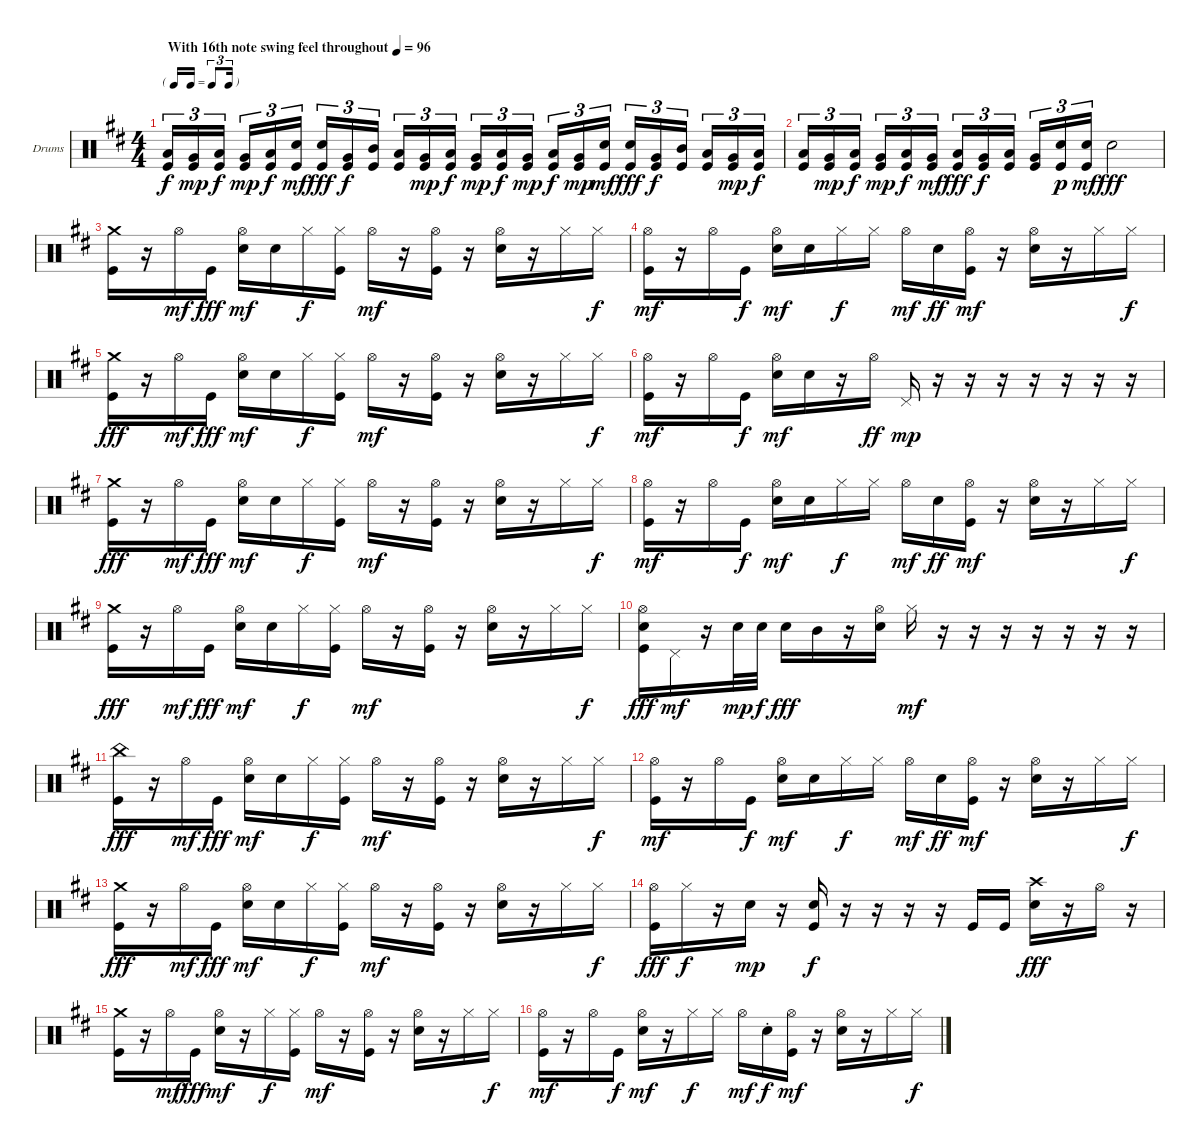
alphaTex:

\bracketExtendMode groupsimilarinstruments
\firstSystemTrackNameOrientation horizontal
\otherSystemsTrackNameOrientation horizontal
\track ("Drumkit" "Drums") {instrument percussion}
\staff {score}
\articulation defaults
\ts (4 4)
\beaming (8 2 2 2 2)
\tf triplet16th
\section ("" "")
\tempo (96 "With 16th note swing feel throughout")
\clef neutral
\ks d
("Low Tom (hit)" "Kick (hit)").16{tu (3 2) dy f} ("Very Low Tom (hit)" "Kick (hit)").16{tu (3 2) dy mp} ("Low Tom (hit)" "Kick (hit)").16{tu (3 2) dy f} ("Very Low Tom (hit)" "Kick (hit)").16{tu (3 2) dy mp} ("Low Tom (hit)" "Kick (hit)").16{tu (3 2) dy f} ("Snare (hit) 2" "Kick (hit)").16{tu (3 2) dy mf} ("Snare (hit) 2" "Kick (hit)").16{tu (3 2) dy fff} ("Very Low Tom (hit)" "Kick (hit)").16{tu (3 2) dy f} ("Mid Tom (hit)" "Kick (hit)").16{tu (3 2)} ("Low Tom (hit)" "Kick (hit)").16{tu (3 2)} ("Very Low Tom (hit)" "Kick (hit)").16{tu (3 2) dy mp} ("Low Tom (hit)" "Kick (hit)").16{tu (3 2) dy f} ("Very Low Tom (hit)" "Kick (hit)").16{tu (3 2) dy mp} ("Low Tom (hit)" "Kick (hit)").16{tu (3 2) dy f} ("Very Low Tom (hit)" "Kick (hit)").16{tu (3 2) dy mp} ("Low Tom (hit)" "Kick (hit)").16{tu (3 2) dy f} ("Very Low Tom (hit)" "Kick (hit)").16{tu (3 2) dy mp} ("Snare (hit) 2" "Kick (hit)").16{tu (3 2) dy mf} ("Snare (hit) 2" "Kick (hit)").16{tu (3 2) dy fff} ("Very Low Tom (hit)" "Kick (hit)").16{tu (3 2) dy f} ("Mid Tom (hit)" "Kick (hit)").16{tu (3 2)} ("Low Tom (hit)" "Kick (hit)").16{tu (3 2)} ("Very Low Tom (hit)" "Kick (hit)").16{tu (3 2) dy mp} ("Low Tom (hit)" "Kick (hit)").16{tu (3 2) dy f} |
("Low Tom (hit)" "Kick (hit)").16{tu (3 2)} ("Very Low Tom (hit)" "Kick (hit)").16{tu (3 2) dy mp} ("Low Tom (hit)" "Kick (hit)").16{tu (3 2) dy f} ("Very Low Tom (hit)" "Kick (hit)").16{tu (3 2) dy mp} ("Low Tom (hit)" "Kick (hit)").16{tu (3 2) dy f} ("Very Low Tom (hit)" "Kick (hit)").16{tu (3 2) dy mf} ("Low Tom (hit)" "Kick (hit)").16{tu (3 2) dy fff} ("Very Low Tom (hit)" "Kick (hit)").16{tu (3 2) dy f} ("Low Tom (hit)" "Kick (hit)").16{tu (3 2)} ("Very Low Tom (hit)" "Kick (hit)").16{tu (3 2)} ("Snare (hit) 2" "Kick (hit)").16{tu (3 2) dy p} ("Snare (hit) 2" "Kick (hit)").16{tu (3 2) dy mf} "Snare (hit) 2".2{dy fff} |
("Crash medium (hit)" "Kick (hit)").16 r.16 "Hi-Hat (open)".16{dy mf} "Kick (hit)".16{dy fff} ("Hi-Hat (open)" "Snare (hit) 2").16{dy mf} "Snare (hit) 2".16 "Hi-Hat (closed)".16{dy f} ("Hi-Hat (closed)" "Kick (hit)").16 "Hi-Hat (open)".16{dy mf} r.16 ("Hi-Hat (open)" "Kick (hit)").16 r.16 ("Hi-Hat (open)" "Snare (hit) 2").16 r.16 "Hi-Hat (closed)".16 "Hi-Hat (closed)".16{dy f} |
("Hi-Hat (open)" "Kick (hit)").16{dy mf} r.16 "Hi-Hat (open)".16 "Kick (hit)".16{dy f} ("Hi-Hat (open)" "Snare (hit) 2").16{dy mf} "Snare (hit) 2".16 "Hi-Hat (closed)".16{dy f} "Hi-Hat (closed)".16 "Hi-Hat (open)".16{dy mf} "Snare (hit) 2".16{dy ff} ("Hi-Hat (open)" "Kick (hit)").16{dy mf} r.16 ("Hi-Hat (open)" "Snare (hit) 2").16 r.16 "Hi-Hat (closed)".16 "Hi-Hat (closed)".16{dy f} |
("Crash medium (hit)" "Kick (hit)").16{dy fff} r.16 "Hi-Hat (open)".16{dy mf} "Kick (hit)".16{dy fff} ("Hi-Hat (open)" "Snare (hit) 2").16{dy mf} "Snare (hit) 2".16 "Hi-Hat (closed)".16{dy f} ("Hi-Hat (closed)" "Kick (hit)").16 "Hi-Hat (open)".16{dy mf} r.16 ("Hi-Hat (open)" "Kick (hit)").16 r.16 ("Hi-Hat (open)" "Snare (hit) 2").16 r.16 "Hi-Hat (closed)".16 "Hi-Hat (closed)".16{dy f} |
("Hi-Hat (open)" "Kick (hit)").16{dy mf} r.16 "Hi-Hat (open)".16 "Kick (hit)".16{dy f} ("Hi-Hat (open)" "Snare (hit) 2").16{dy mf} "Snare (hit) 2".16 r.16 "Hi-Hat (open)".16{dy ff} "Pedal Hi-Hat (hit)".16{dy mp} r.16 r.16 r.16 r.16 r.16 r.16 r.16 |
("Crash medium (hit)" "Kick (hit)").16{dy fff} r.16 "Hi-Hat (open)".16{dy mf} "Kick (hit)".16{dy fff} ("Hi-Hat (open)" "Snare (hit) 2").16{dy mf} "Snare (hit) 2".16 "Hi-Hat (closed)".16{dy f} ("Hi-Hat (closed)" "Kick (hit)").16 "Hi-Hat (open)".16{dy mf} r.16 ("Hi-Hat (open)" "Kick (hit)").16 r.16 ("Hi-Hat (open)" "Snare (hit) 2").16 r.16 "Hi-Hat (closed)".16 "Hi-Hat (closed)".16{dy f} |
("Hi-Hat (open)" "Kick (hit)").16{dy mf} r.16 "Hi-Hat (open)".16 "Kick (hit)".16{dy f} ("Hi-Hat (open)" "Snare (hit) 2").16{dy mf} "Snare (hit) 2".16 "Hi-Hat (closed)".16{dy f} "Hi-Hat (closed)".16 "Hi-Hat (open)".16{dy mf} "Snare (hit) 2".16{dy ff} ("Hi-Hat (open)" "Kick (hit)").16{dy mf} r.16 ("Hi-Hat (open)" "Snare (hit) 2").16 r.16 "Hi-Hat (closed)".16 "Hi-Hat (closed)".16{dy f} |
("Crash medium (hit)" "Kick (hit)").16{dy fff} r.16 "Hi-Hat (open)".16{dy mf} "Kick (hit)".16{dy fff} ("Hi-Hat (open)" "Snare (hit) 2").16{dy mf} "Snare (hit) 2".16 "Hi-Hat (closed)".16{dy f} ("Hi-Hat (closed)" "Kick (hit)").16 "Hi-Hat (open)".16{dy mf} r.16 ("Hi-Hat (open)" "Kick (hit)").16 r.16 ("Hi-Hat (open)" "Snare (hit) 2").16 r.16 "Hi-Hat (closed)".16 "Hi-Hat (closed)".16{dy f} |
("Hi-Hat (open)" "Snare (hit) 2" "Kick (hit)").16{dy fff} "Pedal Hi-Hat (hit)".16{dy mf} r.16 "Snare (hit) 2".32{dy mp} "Snare (hit) 2".32{dy f} "Snare (hit) 2".16{dy fff} "Mid Tom (hit)".16 r.16 ("Hi-Hat (open)" "Snare (hit) 2").16 "Hi-Hat (closed)".16{dy mf} r.16 r.16 r.16 r.16 r.16 r.16 r.16 |
("China (hit)" "Kick (hit)").16{dy fff} r.16 "Hi-Hat (open)".16{dy mf} "Kick (hit)".16{dy fff} ("Hi-Hat (open)" "Snare (hit) 2").16{dy mf} "Snare (hit) 2".16 "Hi-Hat (closed)".16{dy f} ("Hi-Hat (closed)" "Kick (hit)").16 "Hi-Hat (open)".16{dy mf} r.16 ("Hi-Hat (open)" "Kick (hit)").16 r.16 ("Hi-Hat (open)" "Snare (hit) 2").16 r.16 "Hi-Hat (closed)".16 "Hi-Hat (closed)".16{dy f} |
("Hi-Hat (open)" "Kick (hit)").16{dy mf} r.16 "Hi-Hat (open)".16 "Kick (hit)".16{dy f} ("Hi-Hat (open)" "Snare (hit) 2").16{dy mf} "Snare (hit) 2".16 "Hi-Hat (closed)".16{dy f} "Hi-Hat (closed)".16 "Hi-Hat (open)".16{dy mf} "Snare (hit) 2".16{dy ff} ("Hi-Hat (open)" "Kick (hit)").16{dy mf} r.16 ("Hi-Hat (open)" "Snare (hit) 2").16 r.16 "Hi-Hat (closed)".16 "Hi-Hat (closed)".16{dy f} |
("Crash medium (hit)" "Kick (hit)").16{dy fff} r.16 "Hi-Hat (open)".16{dy mf} "Kick (hit)".16{dy fff} ("Hi-Hat (open)" "Snare (hit) 2").16{dy mf} "Snare (hit) 2".16 "Hi-Hat (closed)".16{dy f} ("Hi-Hat (closed)" "Kick (hit)").16 "Hi-Hat (open)".16{dy mf} r.16 ("Hi-Hat (open)" "Kick (hit)").16 r.16 ("Hi-Hat (open)" "Snare (hit) 2").16 r.16 "Hi-Hat (closed)".16 "Hi-Hat (closed)".16{dy f} |
("Hi-Hat (open)" "Kick (hit)").16{dy fff} "Hi-Hat (closed)".16{dy f} r.16 "Snare (hit) 2".16{dy mp} r.16 ("Snare (hit) 2" "Kick (hit)").16{dy f} r.16 r.16 r.16 r.16 "Kick (hit)".16 "Kick (hit)".16 ("Crash high (hit)" "Snare (hit) 2").16{dy fff} r.16 "Hi-Hat (open)".16 r.16 |
("Crash medium (hit)" "Kick (hit)").16 r.16 "Hi-Hat (open)".16{dy mf} "Kick (hit)".16{dy fff} ("Hi-Hat (open)" "Snare (hit) 2").16{dy mf} r.16 "Hi-Hat (closed)".16{dy f} ("Hi-Hat (closed)" "Kick (hit)").16 "Hi-Hat (open)".16{dy mf} r.16 ("Hi-Hat (open)" "Kick (hit)").16 r.16 ("Hi-Hat (open)" "Snare (hit) 2").16 r.16 "Hi-Hat (closed)".16 "Hi-Hat (closed)".16{dy f} |
("Hi-Hat (open)" "Kick (hit)").16{dy mf} r.16 "Hi-Hat (open)".16 "Kick (hit)".16{dy f} ("Hi-Hat (open)" "Snare (hit) 2").16{dy mf} r.16 "Hi-Hat (closed)".16{dy f} "Hi-Hat (closed)".16 "Hi-Hat (open)".16{dy mf} "Snare (hit) 2"{st}.16{dy f} ("Hi-Hat (open)" "Kick (hit)").16{dy mf} r.16 ("Hi-Hat (open)" "Snare (hit) 2").16 r.16 "Hi-Hat (closed)".16 "Hi-Hat (closed)".16{dy f}
